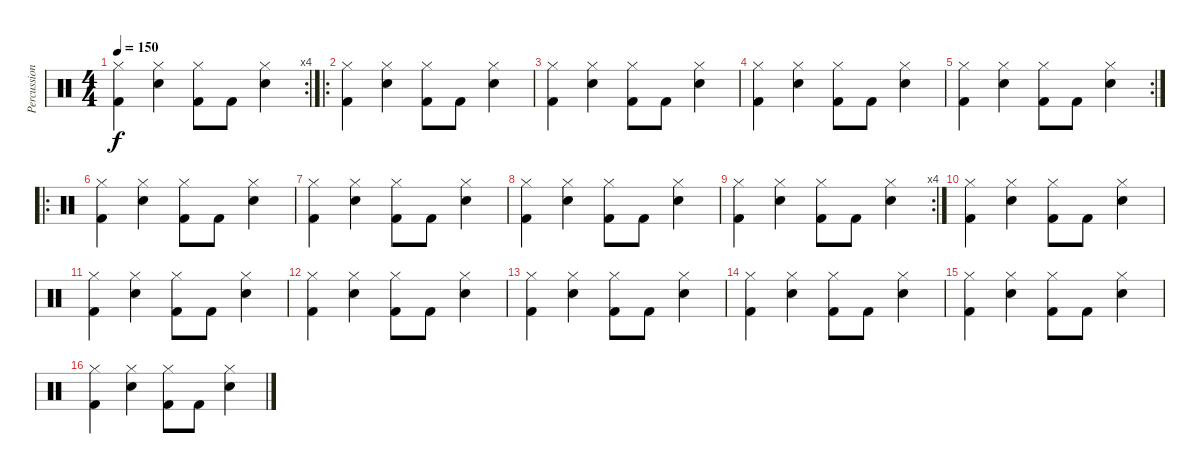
\track ("Percussions" "Percussion") {instrument percussion}
\staff {score}
\articulation defaults
\rc 4
\ts (4 4)
\tempo 150
\clef neutral
\ks c
("Kick (hit) 2" "Hi-Hat (closed)").4{dy f} ("Electric Snare (hit)" "Hi-Hat (closed)").4 ("Kick (hit) 2" "Hi-Hat (closed)").8 "Kick (hit) 2".8 ("Electric Snare (hit)" "Hi-Hat (closed)").4 |
\ro
("Kick (hit) 2" "Hi-Hat (closed)").4 ("Electric Snare (hit)" "Hi-Hat (closed)").4 ("Kick (hit) 2" "Hi-Hat (closed)").8 "Kick (hit) 2".8 ("Electric Snare (hit)" "Hi-Hat (closed)").4 |
("Kick (hit) 2" "Hi-Hat (closed)").4 ("Electric Snare (hit)" "Hi-Hat (closed)").4 ("Kick (hit) 2" "Hi-Hat (closed)").8 "Kick (hit) 2".8 ("Electric Snare (hit)" "Hi-Hat (closed)").4 |
("Kick (hit) 2" "Hi-Hat (closed)").4 ("Electric Snare (hit)" "Hi-Hat (closed)").4 ("Kick (hit) 2" "Hi-Hat (closed)").8 "Kick (hit) 2".8 ("Electric Snare (hit)" "Hi-Hat (closed)").4 |
\rc 2
("Kick (hit) 2" "Hi-Hat (closed)").4 ("Electric Snare (hit)" "Hi-Hat (closed)").4 ("Kick (hit) 2" "Hi-Hat (closed)").8 "Kick (hit) 2".8 ("Electric Snare (hit)" "Hi-Hat (closed)").4 |
\ro
("Kick (hit) 2" "Hi-Hat (closed)").4 ("Electric Snare (hit)" "Hi-Hat (closed)").4 ("Kick (hit) 2" "Hi-Hat (closed)").8 "Kick (hit) 2".8 ("Electric Snare (hit)" "Hi-Hat (closed)").4 |
("Kick (hit) 2" "Hi-Hat (closed)").4 ("Electric Snare (hit)" "Hi-Hat (closed)").4 ("Kick (hit) 2" "Hi-Hat (closed)").8 "Kick (hit) 2".8 ("Electric Snare (hit)" "Hi-Hat (closed)").4 |
("Kick (hit) 2" "Hi-Hat (closed)").4 ("Electric Snare (hit)" "Hi-Hat (closed)").4 ("Kick (hit) 2" "Hi-Hat (closed)").8 "Kick (hit) 2".8 ("Electric Snare (hit)" "Hi-Hat (closed)").4 |
\rc 4
("Kick (hit) 2" "Hi-Hat (closed)").4 ("Electric Snare (hit)" "Hi-Hat (closed)").4 ("Kick (hit) 2" "Hi-Hat (closed)").8 "Kick (hit) 2".8 ("Electric Snare (hit)" "Hi-Hat (closed)").4 |
("Kick (hit) 2" "Hi-Hat (closed)").4 ("Electric Snare (hit)" "Hi-Hat (closed)").4 ("Kick (hit) 2" "Hi-Hat (closed)").8 "Kick (hit) 2".8 ("Electric Snare (hit)" "Hi-Hat (closed)").4 |
("Kick (hit) 2" "Hi-Hat (closed)").4 ("Electric Snare (hit)" "Hi-Hat (closed)").4 ("Kick (hit) 2" "Hi-Hat (closed)").8 "Kick (hit) 2".8 ("Electric Snare (hit)" "Hi-Hat (closed)").4 |
("Kick (hit) 2" "Hi-Hat (closed)").4 ("Electric Snare (hit)" "Hi-Hat (closed)").4 ("Kick (hit) 2" "Hi-Hat (closed)").8 "Kick (hit) 2".8 ("Electric Snare (hit)" "Hi-Hat (closed)").4 |
("Kick (hit) 2" "Hi-Hat (closed)").4 ("Electric Snare (hit)" "Hi-Hat (closed)").4 ("Kick (hit) 2" "Hi-Hat (closed)").8 "Kick (hit) 2".8 ("Electric Snare (hit)" "Hi-Hat (closed)").4 |
("Kick (hit) 2" "Hi-Hat (closed)").4 ("Electric Snare (hit)" "Hi-Hat (closed)").4 ("Kick (hit) 2" "Hi-Hat (closed)").8 "Kick (hit) 2".8 ("Electric Snare (hit)" "Hi-Hat (closed)").4 |
("Kick (hit) 2" "Hi-Hat (closed)").4 ("Electric Snare (hit)" "Hi-Hat (closed)").4 ("Kick (hit) 2" "Hi-Hat (closed)").8 "Kick (hit) 2".8 ("Electric Snare (hit)" "Hi-Hat (closed)").4 |
("Kick (hit) 2" "Hi-Hat (closed)").4 ("Electric Snare (hit)" "Hi-Hat (closed)").4 ("Kick (hit) 2" "Hi-Hat (closed)").8 "Kick (hit) 2".8 ("Electric Snare (hit)" "Hi-Hat (closed)").4
